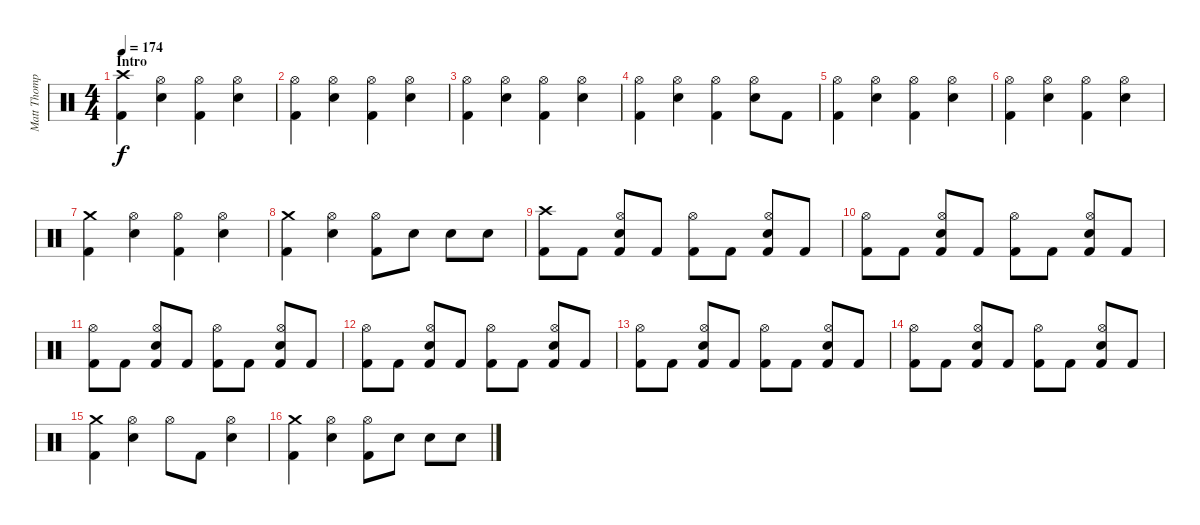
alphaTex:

\track ("Matt Thompson" "Matt Thomp") {instrument percussion}
\staff {score}
\articulation defaults
\ts (4 4)
\section ("" "Intro")
\tempo 174
\clef neutral
\ks c
("Crash high (hit)" "Kick (hit) 2").4{dy f} ("Hi-Hat (open)" "Snare (hit) 2").4 ("Hi-Hat (open)" "Kick (hit) 2").4 ("Hi-Hat (open)" "Snare (hit) 2").4 |
("Hi-Hat (open)" "Kick (hit) 2").4 ("Hi-Hat (open)" "Snare (hit) 2").4 ("Hi-Hat (open)" "Kick (hit) 2").4 ("Hi-Hat (open)" "Snare (hit) 2").4 |
("Hi-Hat (open)" "Kick (hit) 2").4 ("Hi-Hat (open)" "Snare (hit) 2").4 ("Hi-Hat (open)" "Kick (hit) 2").4 ("Hi-Hat (open)" "Snare (hit) 2").4 |
("Hi-Hat (open)" "Kick (hit) 2").4 ("Hi-Hat (open)" "Snare (hit) 2").4 ("Hi-Hat (open)" "Kick (hit) 2").4 ("Hi-Hat (open)" "Snare (hit) 2").8 "Kick (hit) 2".8 |
("Hi-Hat (open)" "Kick (hit) 2").4 ("Hi-Hat (open)" "Snare (hit) 2").4 ("Hi-Hat (open)" "Kick (hit) 2").4 ("Hi-Hat (open)" "Snare (hit) 2").4 |
("Hi-Hat (open)" "Kick (hit) 2").4 ("Hi-Hat (open)" "Snare (hit) 2").4 ("Hi-Hat (open)" "Kick (hit) 2").4 ("Hi-Hat (open)" "Snare (hit) 2").4 |
("Crash medium (hit)" "Kick (hit) 2").4 ("Hi-Hat (open)" "Snare (hit) 2").4 ("Hi-Hat (open)" "Kick (hit) 2").4 ("Hi-Hat (open)" "Snare (hit) 2").4 |
("Crash medium (hit)" "Kick (hit) 2").4 ("Hi-Hat (open)" "Snare (hit) 2").4 ("Hi-Hat (open)" "Kick (hit) 2").8 "Snare (hit) 2".8 "Snare (hit) 2".8 "Snare (hit) 2".8 |
("Crash high (hit)" "Kick (hit) 2").8 "Kick (hit) 2".8 ("Hi-Hat (open)" "Snare (hit) 2" "Kick (hit) 2").8 "Kick (hit) 2".8 ("Hi-Hat (open)" "Kick (hit) 2").8 "Kick (hit) 2".8 ("Hi-Hat (open)" "Snare (hit) 2" "Kick (hit) 2").8 "Kick (hit) 2".8 |
("Hi-Hat (open)" "Kick (hit) 2").8 "Kick (hit) 2".8 ("Hi-Hat (open)" "Snare (hit) 2" "Kick (hit) 2").8 "Kick (hit) 2".8 ("Hi-Hat (open)" "Kick (hit) 2").8 "Kick (hit) 2".8 ("Hi-Hat (open)" "Snare (hit) 2" "Kick (hit) 2").8 "Kick (hit) 2".8 |
("Hi-Hat (open)" "Kick (hit) 2").8 "Kick (hit) 2".8 ("Hi-Hat (open)" "Snare (hit) 2" "Kick (hit) 2").8 "Kick (hit) 2".8 ("Hi-Hat (open)" "Kick (hit) 2").8 "Kick (hit) 2".8 ("Hi-Hat (open)" "Snare (hit) 2" "Kick (hit) 2").8 "Kick (hit) 2".8 |
("Hi-Hat (open)" "Kick (hit) 2").8 "Kick (hit) 2".8 ("Hi-Hat (open)" "Snare (hit) 2" "Kick (hit) 2").8 "Kick (hit) 2".8 ("Hi-Hat (open)" "Kick (hit) 2").8 "Kick (hit) 2".8 ("Hi-Hat (open)" "Snare (hit) 2" "Kick (hit) 2").8 "Kick (hit) 2".8 |
("Hi-Hat (open)" "Kick (hit) 2").8 "Kick (hit) 2".8 ("Hi-Hat (open)" "Snare (hit) 2" "Kick (hit) 2").8 "Kick (hit) 2".8 ("Hi-Hat (open)" "Kick (hit) 2").8 "Kick (hit) 2".8 ("Hi-Hat (open)" "Snare (hit) 2" "Kick (hit) 2").8 "Kick (hit) 2".8 |
("Hi-Hat (open)" "Kick (hit) 2").8 "Kick (hit) 2".8 ("Hi-Hat (open)" "Snare (hit) 2" "Kick (hit) 2").8 "Kick (hit) 2".8 ("Hi-Hat (open)" "Kick (hit) 2").8 "Kick (hit) 2".8 ("Hi-Hat (open)" "Snare (hit) 2" "Kick (hit) 2").8 "Kick (hit) 2".8 |
("Crash medium (hit)" "Kick (hit) 2").4 ("Hi-Hat (open)" "Snare (hit) 2").4 "Hi-Hat (open)".8 "Kick (hit) 2".8 ("Hi-Hat (open)" "Snare (hit) 2").4 |
("Crash medium (hit)" "Kick (hit) 2").4 ("Hi-Hat (open)" "Snare (hit) 2").4 ("Hi-Hat (open)" "Kick (hit) 2").8 "Snare (hit) 2".8 "Snare (hit) 2".8 "Snare (hit) 2".8
